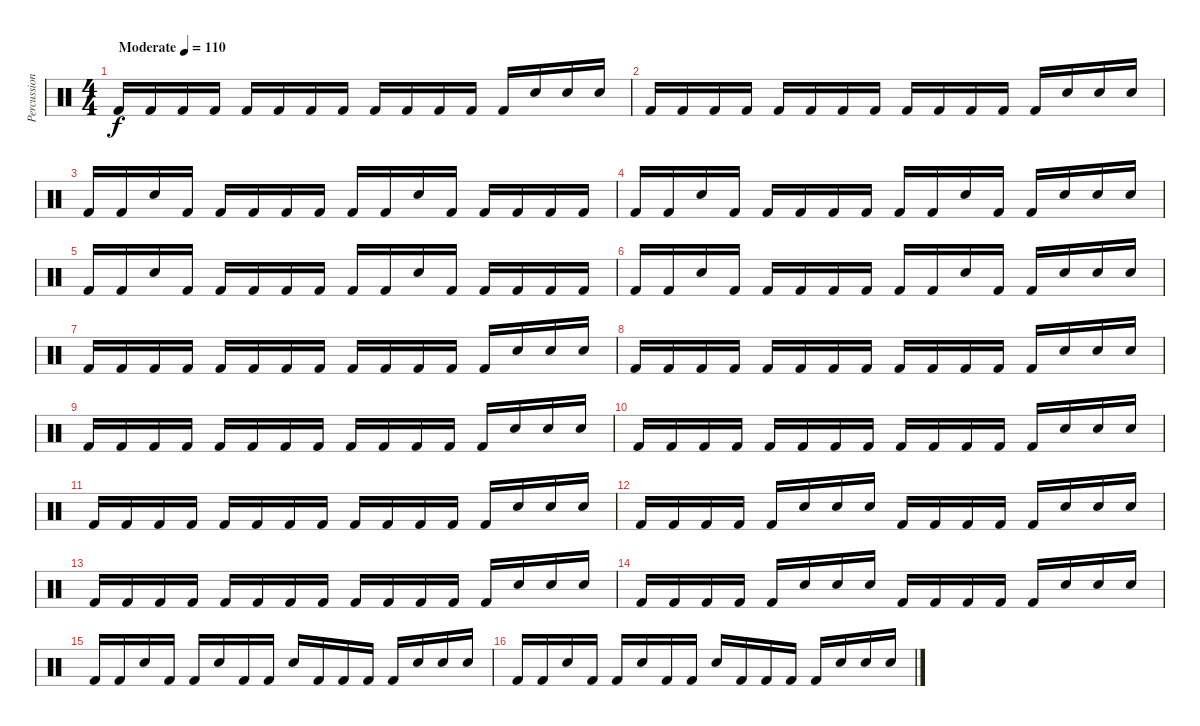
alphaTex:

\track ("Percussion" "Percussion") {instrument percussion}
\staff {score}
\articulation defaults
\ts (4 4)
\tempo (110 "Moderate")
\clef neutral
\ks c "Kick (hit) 2".16{dy f} "Kick (hit) 2".16 "Kick (hit) 2".16 "Kick (hit) 2".16 "Kick (hit) 2".16 "Kick (hit) 2".16 "Kick (hit) 2".16 "Kick (hit) 2".16 "Kick (hit) 2".16 "Kick (hit) 2".16 "Kick (hit) 2".16 "Kick (hit) 2".16 "Kick (hit) 2".16 "Snare (hit) 2".16 "Snare (hit) 2".16 "Snare (hit) 2".16
|
"Kick (hit) 2".16 "Kick (hit) 2".16 "Kick (hit) 2".16 "Kick (hit) 2".16 "Kick (hit) 2".16 "Kick (hit) 2".16 "Kick (hit) 2".16 "Kick (hit) 2".16 "Kick (hit) 2".16 "Kick (hit) 2".16 "Kick (hit) 2".16 "Kick (hit) 2".16 "Kick (hit) 2".16 "Snare (hit) 2".16 "Snare (hit) 2".16 "Snare (hit) 2".16 |
"Kick (hit) 2".16 "Kick (hit) 2".16 "Snare (hit) 2".16 "Kick (hit) 2".16 "Kick (hit) 2".16 "Kick (hit) 2".16 "Kick (hit) 2".16 "Kick (hit) 2".16 "Kick (hit) 2".16 "Kick (hit) 2".16 "Snare (hit) 2".16 "Kick (hit) 2".16 "Kick (hit) 2".16 "Kick (hit) 2".16 "Kick (hit) 2".16 "Kick (hit) 2".16 |
"Kick (hit) 2".16 "Kick (hit) 2".16 "Snare (hit) 2".16 "Kick (hit) 2".16 "Kick (hit) 2".16 "Kick (hit) 2".16 "Kick (hit) 2".16 "Kick (hit) 2".16 "Kick (hit) 2".16 "Kick (hit) 2".16 "Snare (hit) 2".16 "Kick (hit) 2".16 "Kick (hit) 2".16 "Snare (hit) 2".16 "Snare (hit) 2".16 "Snare (hit) 2".16 |
"Kick (hit) 2".16 "Kick (hit) 2".16 "Snare (hit) 2".16 "Kick (hit) 2".16 "Kick (hit) 2".16 "Kick (hit) 2".16 "Kick (hit) 2".16 "Kick (hit) 2".16 "Kick (hit) 2".16 "Kick (hit) 2".16 "Snare (hit) 2".16 "Kick (hit) 2".16 "Kick (hit) 2".16 "Kick (hit) 2".16 "Kick (hit) 2".16 "Kick (hit) 2".16 |
"Kick (hit) 2".16 "Kick (hit) 2".16 "Snare (hit) 2".16 "Kick (hit) 2".16 "Kick (hit) 2".16 "Kick (hit) 2".16 "Kick (hit) 2".16 "Kick (hit) 2".16 "Kick (hit) 2".16 "Kick (hit) 2".16 "Snare (hit) 2".16 "Kick (hit) 2".16 "Kick (hit) 2".16 "Snare (hit) 2".16 "Snare (hit) 2".16 "Snare (hit) 2".16 |
"Kick (hit) 2".16 "Kick (hit) 2".16 "Kick (hit) 2".16 "Kick (hit) 2".16 "Kick (hit) 2".16 "Kick (hit) 2".16 "Kick (hit) 2".16 "Kick (hit) 2".16 "Kick (hit) 2".16 "Kick (hit) 2".16 "Kick (hit) 2".16 "Kick (hit) 2".16 "Kick (hit) 2".16 "Snare (hit) 2".16 "Snare (hit) 2".16 "Snare (hit) 2".16 |
"Kick (hit) 2".16 "Kick (hit) 2".16 "Kick (hit) 2".16 "Kick (hit) 2".16 "Kick (hit) 2".16 "Kick (hit) 2".16 "Kick (hit) 2".16 "Kick (hit) 2".16 "Kick (hit) 2".16 "Kick (hit) 2".16 "Kick (hit) 2".16 "Kick (hit) 2".16 "Kick (hit) 2".16 "Snare (hit) 2".16 "Snare (hit) 2".16 "Snare (hit) 2".16 |
"Kick (hit) 2".16 "Kick (hit) 2".16 "Kick (hit) 2".16 "Kick (hit) 2".16 "Kick (hit) 2".16 "Kick (hit) 2".16 "Kick (hit) 2".16 "Kick (hit) 2".16 "Kick (hit) 2".16 "Kick (hit) 2".16 "Kick (hit) 2".16 "Kick (hit) 2".16 "Kick (hit) 2".16 "Snare (hit) 2".16 "Snare (hit) 2".16 "Snare (hit) 2".16 |
"Kick (hit) 2".16 "Kick (hit) 2".16 "Kick (hit) 2".16 "Kick (hit) 2".16 "Kick (hit) 2".16 "Kick (hit) 2".16 "Kick (hit) 2".16 "Kick (hit) 2".16 "Kick (hit) 2".16 "Kick (hit) 2".16 "Kick (hit) 2".16 "Kick (hit) 2".16 "Kick (hit) 2".16 "Snare (hit) 2".16 "Snare (hit) 2".16 "Snare (hit) 2".16 |
"Kick (hit) 2".16 "Kick (hit) 2".16 "Kick (hit) 2".16 "Kick (hit) 2".16 "Kick (hit) 2".16 "Kick (hit) 2".16 "Kick (hit) 2".16 "Kick (hit) 2".16 "Kick (hit) 2".16 "Kick (hit) 2".16 "Kick (hit) 2".16 "Kick (hit) 2".16 "Kick (hit) 2".16 "Snare (hit) 2".16 "Snare (hit) 2".16 "Snare (hit) 2".16 |
"Kick (hit) 2".16 "Kick (hit) 2".16 "Kick (hit) 2".16 "Kick (hit) 2".16 "Kick (hit) 2".16 "Snare (hit) 2".16 "Snare (hit) 2".16 "Snare (hit) 2".16 "Kick (hit) 2".16 "Kick (hit) 2".16 "Kick (hit) 2".16 "Kick (hit) 2".16 "Kick (hit) 2".16 "Snare (hit) 2".16 "Snare (hit) 2".16 "Snare (hit) 2".16 |
"Kick (hit) 2".16 "Kick (hit) 2".16 "Kick (hit) 2".16 "Kick (hit) 2".16 "Kick (hit) 2".16 "Kick (hit) 2".16 "Kick (hit) 2".16 "Kick (hit) 2".16 "Kick (hit) 2".16 "Kick (hit) 2".16 "Kick (hit) 2".16 "Kick (hit) 2".16 "Kick (hit) 2".16 "Snare (hit) 2".16 "Snare (hit) 2".16 "Snare (hit) 2".16 |
"Kick (hit) 2".16 "Kick (hit) 2".16 "Kick (hit) 2".16 "Kick (hit) 2".16 "Kick (hit) 2".16 "Snare (hit) 2".16 "Snare (hit) 2".16 "Snare (hit) 2".16 "Kick (hit) 2".16 "Kick (hit) 2".16 "Kick (hit) 2".16 "Kick (hit) 2".16 "Kick (hit) 2".16 "Snare (hit) 2".16 "Snare (hit) 2".16 "Snare (hit) 2".16 |
"Kick (hit) 2".16 "Kick (hit) 2".16 "Snare (hit) 2".16 "Kick (hit) 2".16 "Kick (hit) 2".16 "Snare (hit) 2".16 "Kick (hit) 2".16 "Kick (hit) 2".16 "Snare (hit) 2".16 "Kick (hit) 2".16 "Kick (hit) 2".16 "Kick (hit) 2".16 "Kick (hit) 2".16 "Snare (hit) 2".16 "Snare (hit) 2".16 "Snare (hit) 2".16 |
"Kick (hit) 2".16 "Kick (hit) 2".16 "Snare (hit) 2".16 "Kick (hit) 2".16 "Kick (hit) 2".16 "Snare (hit) 2".16 "Kick (hit) 2".16 "Kick (hit) 2".16 "Snare (hit) 2".16 "Kick (hit) 2".16 "Kick (hit) 2".16 "Kick (hit) 2".16 "Kick (hit) 2".16 "Snare (hit) 2".16 "Snare (hit) 2".16 "Snare (hit) 2".16
